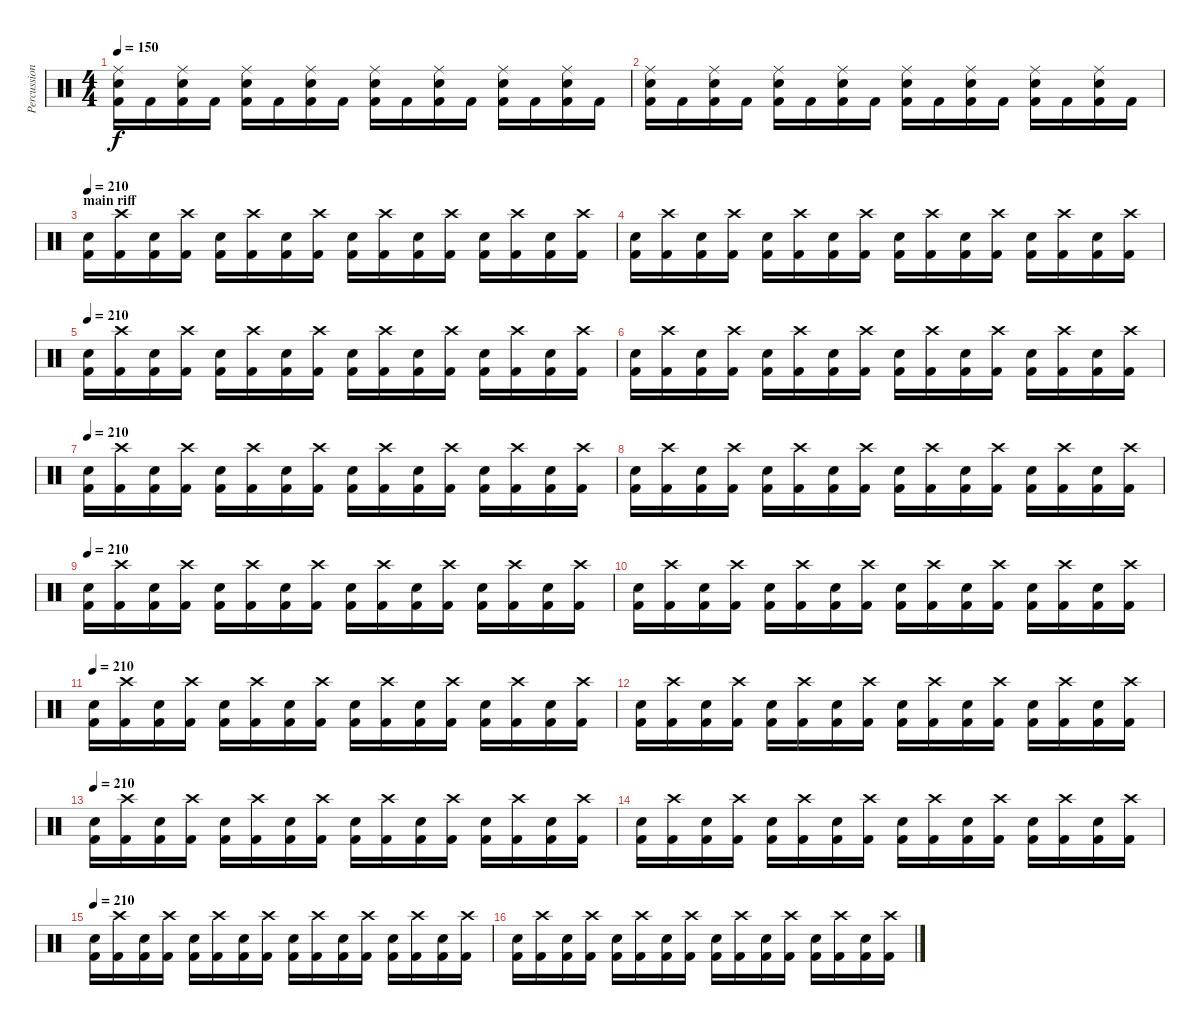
\track ("Percussion" "Percussion") {instrument percussion}
\staff {score}
\articulation defaults
\ts (4 4)
\tempo 150
\clef neutral
\ks c
("Ride (middle)" "Snare (hit) 2" "Kick (hit) 2").16{dy f} "Kick (hit) 2".16 ("Ride (middle)" "Snare (hit) 2" "Kick (hit) 2").16 "Kick (hit) 2".16 ("Ride (middle)" "Snare (hit) 2" "Kick (hit) 2").16 "Kick (hit) 2".16 ("Ride (middle)" "Snare (hit) 2" "Kick (hit) 2").16 "Kick (hit) 2".16 ("Ride (middle)" "Snare (hit) 2" "Kick (hit) 2").16 "Kick (hit) 2".16 ("Ride (middle)" "Snare (hit) 2" "Kick (hit) 2").16 "Kick (hit) 2".16 ("Ride (middle)" "Snare (hit) 2" "Kick (hit) 2").16 "Kick (hit) 2".16 ("Ride (middle)" "Snare (hit) 2" "Kick (hit) 2").16 "Kick (hit) 2".16 |
("Ride (middle)" "Snare (hit) 2" "Kick (hit) 2").16 "Kick (hit) 2".16 ("Ride (middle)" "Snare (hit) 2" "Kick (hit) 2").16 "Kick (hit) 2".16 ("Ride (middle)" "Snare (hit) 2" "Kick (hit) 2").16 "Kick (hit) 2".16 ("Ride (middle)" "Snare (hit) 2" "Kick (hit) 2").16 "Kick (hit) 2".16 ("Ride (middle)" "Snare (hit) 2" "Kick (hit) 2").16 "Kick (hit) 2".16 ("Ride (middle)" "Snare (hit) 2" "Kick (hit) 2").16 "Kick (hit) 2".16 ("Ride (middle)" "Snare (hit) 2" "Kick (hit) 2").16 "Kick (hit) 2".16 ("Ride (middle)" "Snare (hit) 2" "Kick (hit) 2").16 "Kick (hit) 2".16 |
\section ("" "main riff")
\tempo 210
("Snare (hit) 2" "Kick (hit) 2").16 ("Crash high (hit)" "Kick (hit) 2").16 ("Snare (hit) 2" "Kick (hit) 2").16 ("Crash high (hit)" "Kick (hit) 2").16 ("Snare (hit) 2" "Kick (hit) 2").16 ("Crash high (hit)" "Kick (hit) 2").16 ("Snare (hit) 2" "Kick (hit) 2").16 ("Crash high (hit)" "Kick (hit) 2").16 ("Snare (hit) 2" "Kick (hit) 2").16 ("Crash high (hit)" "Kick (hit) 2").16 ("Snare (hit) 2" "Kick (hit) 2").16 ("Crash high (hit)" "Kick (hit) 2").16 ("Snare (hit) 2" "Kick (hit) 2").16 ("Crash high (hit)" "Kick (hit) 2").16 ("Snare (hit) 2" "Kick (hit) 2").16 ("Crash high (hit)" "Kick (hit) 2").16 |
("Snare (hit) 2" "Kick (hit) 2").16 ("Crash high (hit)" "Kick (hit) 2").16 ("Snare (hit) 2" "Kick (hit) 2").16 ("Crash high (hit)" "Kick (hit) 2").16 ("Snare (hit) 2" "Kick (hit) 2").16 ("Crash high (hit)" "Kick (hit) 2").16 ("Snare (hit) 2" "Kick (hit) 2").16 ("Crash high (hit)" "Kick (hit) 2").16 ("Snare (hit) 2" "Kick (hit) 2").16 ("Crash high (hit)" "Kick (hit) 2").16 ("Snare (hit) 2" "Kick (hit) 2").16 ("Crash high (hit)" "Kick (hit) 2").16 ("Snare (hit) 2" "Kick (hit) 2").16 ("Crash high (hit)" "Kick (hit) 2").16 ("Snare (hit) 2" "Kick (hit) 2").16 ("Crash high (hit)" "Kick (hit) 2").16 |
\tempo 210
("Snare (hit) 2" "Kick (hit) 2").16 ("Crash high (hit)" "Kick (hit) 2").16 ("Snare (hit) 2" "Kick (hit) 2").16 ("Crash high (hit)" "Kick (hit) 2").16 ("Snare (hit) 2" "Kick (hit) 2").16 ("Crash high (hit)" "Kick (hit) 2").16 ("Snare (hit) 2" "Kick (hit) 2").16 ("Crash high (hit)" "Kick (hit) 2").16 ("Snare (hit) 2" "Kick (hit) 2").16 ("Crash high (hit)" "Kick (hit) 2").16 ("Snare (hit) 2" "Kick (hit) 2").16 ("Crash high (hit)" "Kick (hit) 2").16 ("Snare (hit) 2" "Kick (hit) 2").16 ("Crash high (hit)" "Kick (hit) 2").16 ("Snare (hit) 2" "Kick (hit) 2").16 ("Crash high (hit)" "Kick (hit) 2").16 |
("Snare (hit) 2" "Kick (hit) 2").16 ("Crash high (hit)" "Kick (hit) 2").16 ("Snare (hit) 2" "Kick (hit) 2").16 ("Crash high (hit)" "Kick (hit) 2").16 ("Snare (hit) 2" "Kick (hit) 2").16 ("Crash high (hit)" "Kick (hit) 2").16 ("Snare (hit) 2" "Kick (hit) 2").16 ("Crash high (hit)" "Kick (hit) 2").16 ("Snare (hit) 2" "Kick (hit) 2").16 ("Crash high (hit)" "Kick (hit) 2").16 ("Snare (hit) 2" "Kick (hit) 2").16 ("Crash high (hit)" "Kick (hit) 2").16 ("Snare (hit) 2" "Kick (hit) 2").16 ("Crash high (hit)" "Kick (hit) 2").16 ("Snare (hit) 2" "Kick (hit) 2").16 ("Crash high (hit)" "Kick (hit) 2").16 |
\tempo 210
("Snare (hit) 2" "Kick (hit) 2").16 ("Crash high (hit)" "Kick (hit) 2").16 ("Snare (hit) 2" "Kick (hit) 2").16 ("Crash high (hit)" "Kick (hit) 2").16 ("Snare (hit) 2" "Kick (hit) 2").16 ("Crash high (hit)" "Kick (hit) 2").16 ("Snare (hit) 2" "Kick (hit) 2").16 ("Crash high (hit)" "Kick (hit) 2").16 ("Snare (hit) 2" "Kick (hit) 2").16 ("Crash high (hit)" "Kick (hit) 2").16 ("Snare (hit) 2" "Kick (hit) 2").16 ("Crash high (hit)" "Kick (hit) 2").16 ("Snare (hit) 2" "Kick (hit) 2").16 ("Crash high (hit)" "Kick (hit) 2").16 ("Snare (hit) 2" "Kick (hit) 2").16 ("Crash high (hit)" "Kick (hit) 2").16 |
("Snare (hit) 2" "Kick (hit) 2").16 ("Crash high (hit)" "Kick (hit) 2").16 ("Snare (hit) 2" "Kick (hit) 2").16 ("Crash high (hit)" "Kick (hit) 2").16 ("Snare (hit) 2" "Kick (hit) 2").16 ("Crash high (hit)" "Kick (hit) 2").16 ("Snare (hit) 2" "Kick (hit) 2").16 ("Crash high (hit)" "Kick (hit) 2").16 ("Snare (hit) 2" "Kick (hit) 2").16 ("Crash high (hit)" "Kick (hit) 2").16 ("Snare (hit) 2" "Kick (hit) 2").16 ("Crash high (hit)" "Kick (hit) 2").16 ("Snare (hit) 2" "Kick (hit) 2").16 ("Crash high (hit)" "Kick (hit) 2").16 ("Snare (hit) 2" "Kick (hit) 2").16 ("Crash high (hit)" "Kick (hit) 2").16 |
\tempo 210
("Snare (hit) 2" "Kick (hit) 2").16 ("Crash high (hit)" "Kick (hit) 2").16 ("Snare (hit) 2" "Kick (hit) 2").16 ("Crash high (hit)" "Kick (hit) 2").16 ("Snare (hit) 2" "Kick (hit) 2").16 ("Crash high (hit)" "Kick (hit) 2").16 ("Snare (hit) 2" "Kick (hit) 2").16 ("Crash high (hit)" "Kick (hit) 2").16 ("Snare (hit) 2" "Kick (hit) 2").16 ("Crash high (hit)" "Kick (hit) 2").16 ("Snare (hit) 2" "Kick (hit) 2").16 ("Crash high (hit)" "Kick (hit) 2").16 ("Snare (hit) 2" "Kick (hit) 2").16 ("Crash high (hit)" "Kick (hit) 2").16 ("Snare (hit) 2" "Kick (hit) 2").16 ("Crash high (hit)" "Kick (hit) 2").16 |
("Snare (hit) 2" "Kick (hit) 2").16 ("Crash high (hit)" "Kick (hit) 2").16 ("Snare (hit) 2" "Kick (hit) 2").16 ("Crash high (hit)" "Kick (hit) 2").16 ("Snare (hit) 2" "Kick (hit) 2").16 ("Crash high (hit)" "Kick (hit) 2").16 ("Snare (hit) 2" "Kick (hit) 2").16 ("Crash high (hit)" "Kick (hit) 2").16 ("Snare (hit) 2" "Kick (hit) 2").16 ("Crash high (hit)" "Kick (hit) 2").16 ("Snare (hit) 2" "Kick (hit) 2").16 ("Crash high (hit)" "Kick (hit) 2").16 ("Snare (hit) 2" "Kick (hit) 2").16 ("Crash high (hit)" "Kick (hit) 2").16 ("Snare (hit) 2" "Kick (hit) 2").16 ("Crash high (hit)" "Kick (hit) 2").16 |
\tempo 210
("Snare (hit) 2" "Kick (hit) 2").16 ("Crash high (hit)" "Kick (hit) 2").16 ("Snare (hit) 2" "Kick (hit) 2").16 ("Crash high (hit)" "Kick (hit) 2").16 ("Snare (hit) 2" "Kick (hit) 2").16 ("Crash high (hit)" "Kick (hit) 2").16 ("Snare (hit) 2" "Kick (hit) 2").16 ("Crash high (hit)" "Kick (hit) 2").16 ("Snare (hit) 2" "Kick (hit) 2").16 ("Crash high (hit)" "Kick (hit) 2").16 ("Snare (hit) 2" "Kick (hit) 2").16 ("Crash high (hit)" "Kick (hit) 2").16 ("Snare (hit) 2" "Kick (hit) 2").16 ("Crash high (hit)" "Kick (hit) 2").16 ("Snare (hit) 2" "Kick (hit) 2").16 ("Crash high (hit)" "Kick (hit) 2").16 |
("Snare (hit) 2" "Kick (hit) 2").16 ("Crash high (hit)" "Kick (hit) 2").16 ("Snare (hit) 2" "Kick (hit) 2").16 ("Crash high (hit)" "Kick (hit) 2").16 ("Snare (hit) 2" "Kick (hit) 2").16 ("Crash high (hit)" "Kick (hit) 2").16 ("Snare (hit) 2" "Kick (hit) 2").16 ("Crash high (hit)" "Kick (hit) 2").16 ("Snare (hit) 2" "Kick (hit) 2").16 ("Crash high (hit)" "Kick (hit) 2").16 ("Snare (hit) 2" "Kick (hit) 2").16 ("Crash high (hit)" "Kick (hit) 2").16 ("Snare (hit) 2" "Kick (hit) 2").16 ("Crash high (hit)" "Kick (hit) 2").16 ("Snare (hit) 2" "Kick (hit) 2").16 ("Crash high (hit)" "Kick (hit) 2").16 |
\tempo 210
("Snare (hit) 2" "Kick (hit) 2").16 ("Crash high (hit)" "Kick (hit) 2").16 ("Snare (hit) 2" "Kick (hit) 2").16 ("Crash high (hit)" "Kick (hit) 2").16 ("Snare (hit) 2" "Kick (hit) 2").16 ("Crash high (hit)" "Kick (hit) 2").16 ("Snare (hit) 2" "Kick (hit) 2").16 ("Crash high (hit)" "Kick (hit) 2").16 ("Snare (hit) 2" "Kick (hit) 2").16 ("Crash high (hit)" "Kick (hit) 2").16 ("Snare (hit) 2" "Kick (hit) 2").16 ("Crash high (hit)" "Kick (hit) 2").16 ("Snare (hit) 2" "Kick (hit) 2").16 ("Crash high (hit)" "Kick (hit) 2").16 ("Snare (hit) 2" "Kick (hit) 2").16 ("Crash high (hit)" "Kick (hit) 2").16 |
("Snare (hit) 2" "Kick (hit) 2").16 ("Crash high (hit)" "Kick (hit) 2").16 ("Snare (hit) 2" "Kick (hit) 2").16 ("Crash high (hit)" "Kick (hit) 2").16 ("Snare (hit) 2" "Kick (hit) 2").16 ("Crash high (hit)" "Kick (hit) 2").16 ("Snare (hit) 2" "Kick (hit) 2").16 ("Crash high (hit)" "Kick (hit) 2").16 ("Snare (hit) 2" "Kick (hit) 2").16 ("Crash high (hit)" "Kick (hit) 2").16 ("Snare (hit) 2" "Kick (hit) 2").16 ("Crash high (hit)" "Kick (hit) 2").16 ("Snare (hit) 2" "Kick (hit) 2").16 ("Crash high (hit)" "Kick (hit) 2").16 ("Snare (hit) 2" "Kick (hit) 2").16 ("Crash high (hit)" "Kick (hit) 2").16 |
\tempo 210
("Snare (hit) 2" "Kick (hit) 2").16 ("Crash high (hit)" "Kick (hit) 2").16 ("Snare (hit) 2" "Kick (hit) 2").16 ("Crash high (hit)" "Kick (hit) 2").16 ("Snare (hit) 2" "Kick (hit) 2").16 ("Crash high (hit)" "Kick (hit) 2").16 ("Snare (hit) 2" "Kick (hit) 2").16 ("Crash high (hit)" "Kick (hit) 2").16 ("Snare (hit) 2" "Kick (hit) 2").16 ("Crash high (hit)" "Kick (hit) 2").16 ("Snare (hit) 2" "Kick (hit) 2").16 ("Crash high (hit)" "Kick (hit) 2").16 ("Snare (hit) 2" "Kick (hit) 2").16 ("Crash high (hit)" "Kick (hit) 2").16 ("Snare (hit) 2" "Kick (hit) 2").16 ("Crash high (hit)" "Kick (hit) 2").16 |
("Snare (hit) 2" "Kick (hit) 2").16 ("Crash high (hit)" "Kick (hit) 2").16 ("Snare (hit) 2" "Kick (hit) 2").16 ("Crash high (hit)" "Kick (hit) 2").16 ("Snare (hit) 2" "Kick (hit) 2").16 ("Crash high (hit)" "Kick (hit) 2").16 ("Snare (hit) 2" "Kick (hit) 2").16 ("Crash high (hit)" "Kick (hit) 2").16 ("Snare (hit) 2" "Kick (hit) 2").16 ("Crash high (hit)" "Kick (hit) 2").16 ("Snare (hit) 2" "Kick (hit) 2").16 ("Crash high (hit)" "Kick (hit) 2").16 ("Snare (hit) 2" "Kick (hit) 2").16 ("Crash high (hit)" "Kick (hit) 2").16 ("Snare (hit) 2" "Kick (hit) 2").16 ("Crash high (hit)" "Kick (hit) 2").16
